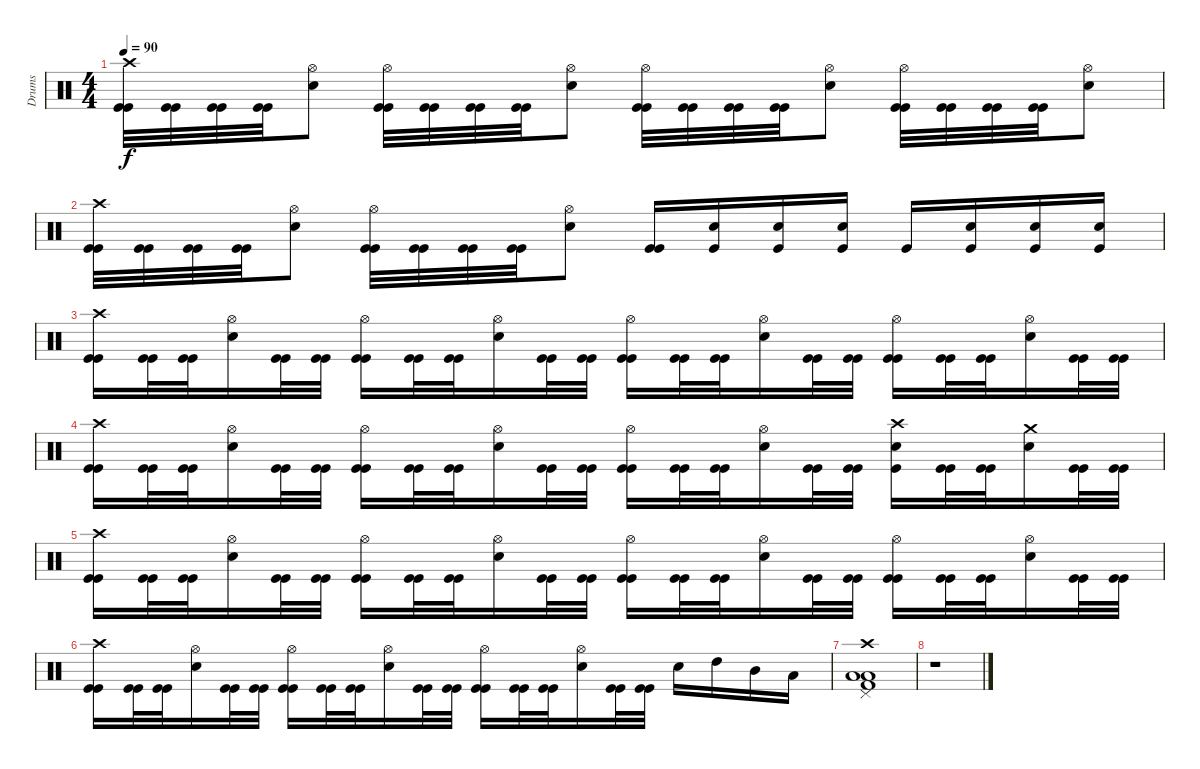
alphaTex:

\track ("Drums" "Drums") {instrument percussion}
\staff {score}
\articulation defaults
\ts (4 4)
\tempo 90
\clef neutral
\ks c
("Kick (hit)" "Kick (hit)" "Crash high (hit)").32{dy f} ("Kick (hit)" "Kick (hit)").32 ("Kick (hit)" "Kick (hit)").32 ("Kick (hit)" "Kick (hit)").32 ("Snare (hit) 2" "Hi-Hat (open)").8 ("Kick (hit)" "Kick (hit)" "Hi-Hat (open)").32 ("Kick (hit)" "Kick (hit)").32 ("Kick (hit)" "Kick (hit)").32 ("Kick (hit)" "Kick (hit)").32 ("Snare (hit) 2" "Hi-Hat (open)").8 ("Kick (hit)" "Kick (hit)" "Hi-Hat (open)").32 ("Kick (hit)" "Kick (hit)").32 ("Kick (hit)" "Kick (hit)").32 ("Kick (hit)" "Kick (hit)").32 ("Snare (hit) 2" "Hi-Hat (open)").8 ("Kick (hit)" "Kick (hit)" "Hi-Hat (open)").32 ("Kick (hit)" "Kick (hit)").32 ("Kick (hit)" "Kick (hit)").32 ("Kick (hit)" "Kick (hit)").32 ("Snare (hit) 2" "Hi-Hat (open)").8 |
("Kick (hit)" "Kick (hit)" "Crash high (hit)").32 ("Kick (hit)" "Kick (hit)").32 ("Kick (hit)" "Kick (hit)").32 ("Kick (hit)" "Kick (hit)").32 ("Snare (hit) 2" "Hi-Hat (open)").8 ("Kick (hit)" "Kick (hit)" "Hi-Hat (open)").32 ("Kick (hit)" "Kick (hit)").32 ("Kick (hit)" "Kick (hit)").32 ("Kick (hit)" "Kick (hit)").32 ("Snare (hit) 2" "Hi-Hat (open)").8 ("Kick (hit)" "Kick (hit)").16 ("Kick (hit)" "Snare (hit) 2").16 ("Kick (hit)" "Snare (hit) 2").16 ("Kick (hit)" "Snare (hit) 2").16 "Kick (hit)".16 ("Kick (hit)" "Snare (hit) 2").16 ("Kick (hit)" "Snare (hit) 2").16 ("Kick (hit)" "Snare (hit) 2").16 |
("Kick (hit)" "Kick (hit)" "Crash high (hit)").16 ("Kick (hit)" "Kick (hit)").32 ("Kick (hit)" "Kick (hit)").32 ("Snare (hit) 2" "Hi-Hat (open)").16 ("Kick (hit)" "Kick (hit)").32 ("Kick (hit)" "Kick (hit)").32 ("Kick (hit)" "Kick (hit)" "Hi-Hat (open)").16 ("Kick (hit)" "Kick (hit)").32 ("Kick (hit)" "Kick (hit)").32 ("Snare (hit) 2" "Hi-Hat (open)").16 ("Kick (hit)" "Kick (hit)").32 ("Kick (hit)" "Kick (hit)").32 ("Kick (hit)" "Kick (hit)" "Hi-Hat (open)").16 ("Kick (hit)" "Kick (hit)").32 ("Kick (hit)" "Kick (hit)").32 ("Snare (hit) 2" "Hi-Hat (open)").16 ("Kick (hit)" "Kick (hit)").32 ("Kick (hit)" "Kick (hit)").32 ("Kick (hit)" "Kick (hit)" "Hi-Hat (open)").16 ("Kick (hit)" "Kick (hit)").32 ("Kick (hit)" "Kick (hit)").32 ("Snare (hit) 2" "Hi-Hat (open)").16 ("Kick (hit)" "Kick (hit)").32 ("Kick (hit)" "Kick (hit)").32 |
("Kick (hit)" "Kick (hit)" "Crash high (hit)").16 ("Kick (hit)" "Kick (hit)").32 ("Kick (hit)" "Kick (hit)").32 ("Snare (hit) 2" "Hi-Hat (open)").16 ("Kick (hit)" "Kick (hit)").32 ("Kick (hit)" "Kick (hit)").32 ("Kick (hit)" "Kick (hit)" "Hi-Hat (open)").16 ("Kick (hit)" "Kick (hit)").32 ("Kick (hit)" "Kick (hit)").32 ("Snare (hit) 2" "Hi-Hat (open)").16 ("Kick (hit)" "Kick (hit)").32 ("Kick (hit)" "Kick (hit)").32 ("Kick (hit)" "Kick (hit)" "Hi-Hat (open)").16 ("Kick (hit)" "Kick (hit)").32 ("Kick (hit)" "Kick (hit)").32 ("Snare (hit) 2" "Hi-Hat (open)").16 ("Kick (hit)" "Kick (hit)").32 ("Kick (hit)" "Kick (hit)").32 ("Kick (hit)" "Snare (hit) 2" "Crash high (hit)").16 ("Kick (hit)" "Kick (hit)").32 ("Kick (hit)" "Kick (hit)").32 ("Snare (hit) 2" "Crash medium (hit)").16 ("Kick (hit)" "Kick (hit)").32 ("Kick (hit)" "Kick (hit)").32 |
("Kick (hit)" "Kick (hit)" "Crash high (hit)").16 ("Kick (hit)" "Kick (hit)").32 ("Kick (hit)" "Kick (hit)").32 ("Snare (hit) 2" "Hi-Hat (open)").16 ("Kick (hit)" "Kick (hit)").32 ("Kick (hit)" "Kick (hit)").32 ("Kick (hit)" "Kick (hit)" "Hi-Hat (open)").16 ("Kick (hit)" "Kick (hit)").32 ("Kick (hit)" "Kick (hit)").32 ("Snare (hit) 2" "Hi-Hat (open)").16 ("Kick (hit)" "Kick (hit)").32 ("Kick (hit)" "Kick (hit)").32 ("Kick (hit)" "Kick (hit)" "Hi-Hat (open)").16 ("Kick (hit)" "Kick (hit)").32 ("Kick (hit)" "Kick (hit)").32 ("Snare (hit) 2" "Hi-Hat (open)").16 ("Kick (hit)" "Kick (hit)").32 ("Kick (hit)" "Kick (hit)").32 ("Kick (hit)" "Kick (hit)" "Hi-Hat (open)").16 ("Kick (hit)" "Kick (hit)").32 ("Kick (hit)" "Kick (hit)").32 ("Snare (hit) 2" "Hi-Hat (open)").16 ("Kick (hit)" "Kick (hit)").32 ("Kick (hit)" "Kick (hit)").32 |
("Kick (hit)" "Kick (hit)" "Crash high (hit)").16 ("Kick (hit)" "Kick (hit)").32 ("Kick (hit)" "Kick (hit)").32 ("Snare (hit) 2" "Hi-Hat (open)").16 ("Kick (hit)" "Kick (hit)").32 ("Kick (hit)" "Kick (hit)").32 ("Kick (hit)" "Kick (hit)" "Hi-Hat (open)").16 ("Kick (hit)" "Kick (hit)").32 ("Kick (hit)" "Kick (hit)").32 ("Snare (hit) 2" "Hi-Hat (open)").16 ("Kick (hit)" "Kick (hit)").32 ("Kick (hit)" "Kick (hit)").32 ("Kick (hit)" "Kick (hit)" "Hi-Hat (open)").16 ("Kick (hit)" "Kick (hit)").32 ("Kick (hit)" "Kick (hit)").32 ("Snare (hit) 2" "Hi-Hat (open)").16 ("Kick (hit)" "Kick (hit)").32 ("Kick (hit)" "Kick (hit)").32 "Snare (hit) 2".16 "High Tom (hit)".16 "Mid Tom (hit)".16 "Low Tom (hit)".16 |
("Crash high (hit)" "Low Tom (hit)" "Pedal Hi-Hat (hit)" "Kick (hit) 2" "Low Floor Tom (hit)").1 |
r.1
